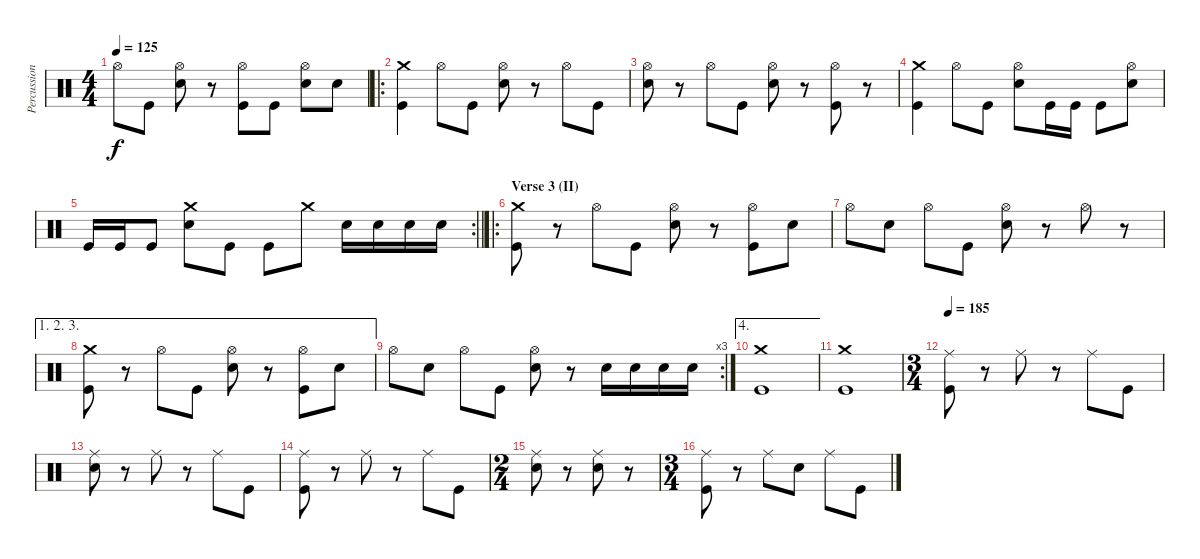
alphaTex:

\track ("Percussion" "Percussion") {instrument percussion}
\staff {score}
\articulation defaults
\ts (4 4)
\tempo 125
\clef neutral
\ks c "Hi-Hat (open)".8{dy f} "Kick (hit)".8
("Hi-Hat (open)" "Snare (hit) 2").8 r.8 ("Hi-Hat (open)" "Kick (hit)").8 "Kick (hit)".8 ("Hi-Hat (open)" "Snare (hit) 2").8 "Snare (hit) 2".8 |
\ro
("Crash medium (hit)" "Kick (hit)").4 "Hi-Hat (open)".8 "Kick (hit)".8 ("Hi-Hat (open)" "Snare (hit) 2").8 r.8 "Hi-Hat (open)".8 "Kick (hit)".8 |
("Hi-Hat (open)" "Snare (hit) 2").8 r.8 "Hi-Hat (open)".8 "Kick (hit)".8 ("Hi-Hat (open)" "Snare (hit) 2").8 r.8 ("Hi-Hat (open)" "Kick (hit)").8 r.8 |
("Crash medium (hit)" "Kick (hit)").4 "Hi-Hat (open)".8 "Kick (hit)".8 ("Hi-Hat (open)" "Snare (hit) 2").8 "Kick (hit)".16 "Kick (hit)".16 "Kick (hit)".8 ("Hi-Hat (open)" "Snare (hit) 2").8 |
\rc 2
\barLineRight lightlight "Kick (hit)".16 "Kick (hit)".16 "Kick (hit)".8
("Crash medium (hit)" "Snare (hit) 2").8 "Kick (hit)".8 "Kick (hit)".8 "Crash medium (hit)".8 "Snare (hit) 2".16 "Snare (hit) 2".16 "Snare (hit) 2".16 "Snare (hit) 2".16 |
\ro
\section ("" "Verse 3 (II)")
("Crash medium (hit)" "Kick (hit)").8 r.8 "Hi-Hat (open)".8 "Kick (hit)".8 ("Hi-Hat (open)" "Snare (hit) 2").8 r.8 ("Hi-Hat (open)" "Kick (hit)").8 "Snare (hit) 2".8 |
"Hi-Hat (open)".8 "Snare (hit) 2".8 "Hi-Hat (open)".8 "Kick (hit)".8 ("Hi-Hat (open)" "Snare (hit) 2").8 r.8 "Hi-Hat (open)".8 r.8 |
\ae (1 2 3)
("Crash medium (hit)" "Kick (hit)").8 r.8 "Hi-Hat (open)".8 "Kick (hit)".8 ("Hi-Hat (open)" "Snare (hit) 2").8 r.8 ("Hi-Hat (open)" "Kick (hit)").8 "Snare (hit) 2".8 |
\rc 3 "Hi-Hat (open)".8 "Snare (hit) 2".8 "Hi-Hat (open)".8 "Kick (hit)".8
("Hi-Hat (open)" "Snare (hit) 2").8 r.8 "Snare (hit) 2".16 "Snare (hit) 2".16 "Snare (hit) 2".16 "Snare (hit) 2".16 |
\ae 4
("Crash medium (hit)" "Kick (hit)").1 |
("Crash medium (hit)" "Kick (hit)").1 |
\ts (3 4)
\tempo 185
("Ride (middle)" "Kick (hit)").8 r.8 "Ride (middle)".8 r.8 "Ride (middle)".8 "Kick (hit)".8 |
("Ride (middle)" "Snare (hit) 2").8 r.8 "Ride (middle)".8 r.8 "Ride (middle)".8 "Kick (hit)".8 |
("Ride (middle)" "Kick (hit)").8 r.8 "Ride (middle)".8 r.8 "Ride (middle)".8 "Kick (hit)".8 |
\ts (2 4)
("Ride (middle)" "Snare (hit) 2").8 r.8 ("Ride (middle)" "Snare (hit) 2").8 r.8 |
\ts (3 4)
("Ride (middle)" "Kick (hit)").8 r.8 "Ride (middle)".8 "Snare (hit) 2".8 "Ride (middle)".8 "Kick (hit)".8
